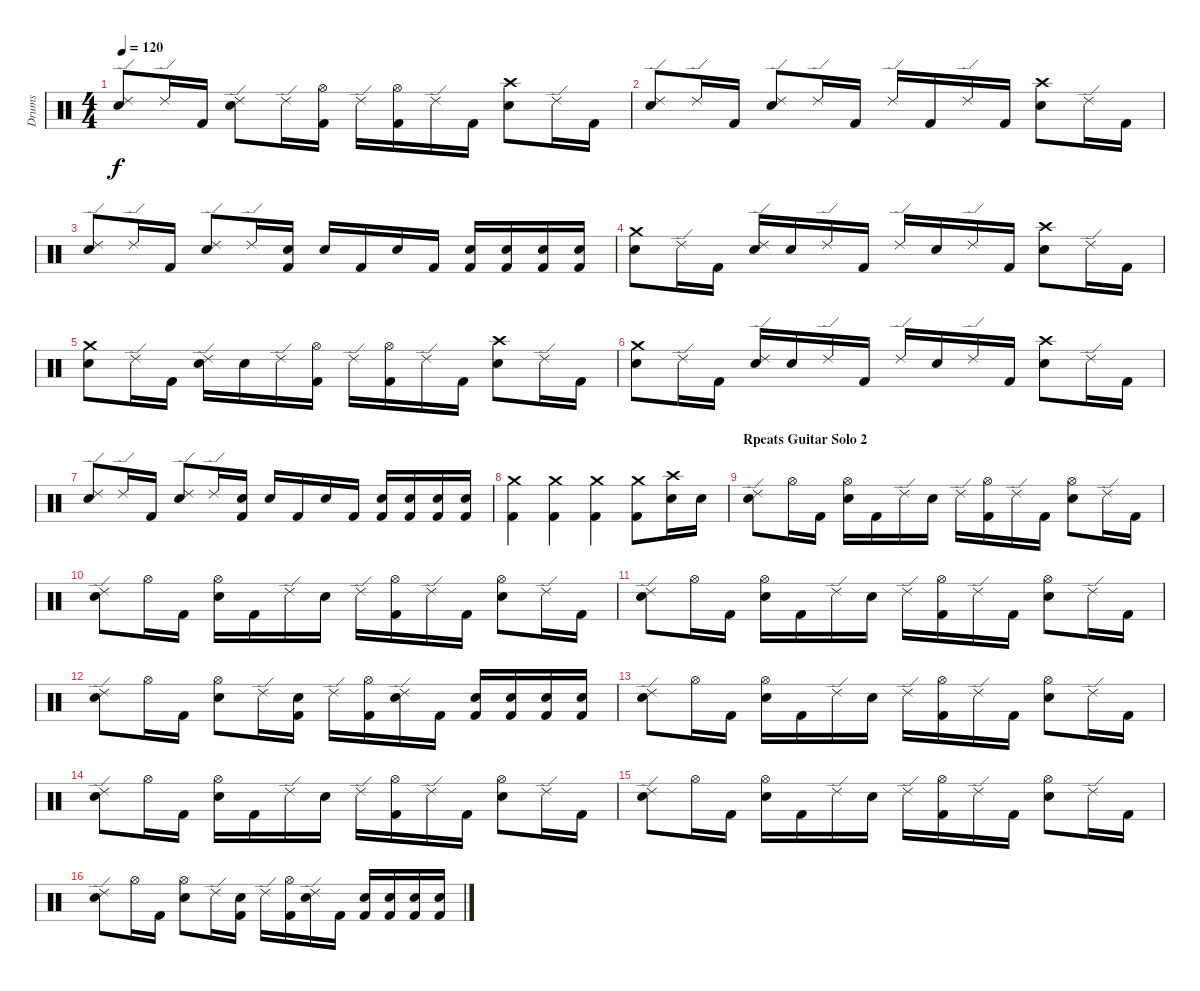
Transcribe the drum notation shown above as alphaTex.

\track ("Drums" "Drums") {instrument percussion}
\staff {score}
\articulation defaults
\ts (4 4)
\tempo 120
\clef neutral
\ks c
("Ride (edge) 2" "Electric Snare (hit)").8{dy f} "Ride (edge) 2".16 "Kick (hit) 2".16 ("Ride (edge) 2" "Electric Snare (hit)").8 "Ride (edge) 2".16 ("Hi-Hat (open)" "Kick (hit) 2").16 "Ride (edge) 2".16 ("Hi-Hat (open)" "Kick (hit) 2").16 "Ride (edge) 2".16 "Kick (hit) 2".16 ("Crash high (hit)" "Electric Snare (hit)").8 "Ride (edge) 2".16 "Kick (hit) 2".16 |
("Ride (edge) 2" "Electric Snare (hit)").8 "Ride (edge) 2".16 "Kick (hit) 2".16 ("Ride (edge) 2" "Electric Snare (hit)").8 "Ride (edge) 2".16 "Kick (hit) 2".16 "Ride (edge) 2".16 "Kick (hit) 2".16 "Ride (edge) 2".16 "Kick (hit) 2".16 ("Crash high (hit)" "Electric Snare (hit)").8 "Ride (edge) 2".16 "Kick (hit) 2".16 |
("Ride (edge) 2" "Electric Snare (hit)").8 "Ride (edge) 2".16 "Kick (hit) 2".16 ("Ride (edge) 2" "Electric Snare (hit)").8 "Ride (edge) 2".16 ("Electric Snare (hit)" "Kick (hit) 2").16 "Electric Snare (hit)".16 "Kick (hit) 2".16 "Electric Snare (hit)".16 "Kick (hit) 2".16 ("Electric Snare (hit)" "Kick (hit) 2").16 ("Electric Snare (hit)" "Kick (hit) 2").16 ("Electric Snare (hit)" "Kick (hit) 2").16 ("Electric Snare (hit)" "Kick (hit) 2").16 |
("Crash medium (hit)" "Electric Snare (hit)").8 "Ride (edge) 2".16 "Kick (hit) 2".16 ("Ride (edge) 2" "Electric Snare (hit)").16 "Electric Snare (hit)".16 "Ride (edge) 2".16 "Kick (hit) 2".16 "Ride (edge) 2".16 "Electric Snare (hit)".16 "Ride (edge) 2".16 "Kick (hit) 2".16 ("Crash high (hit)" "Electric Snare (hit)").8 "Ride (edge) 2".16 "Kick (hit) 2".16 |
("Crash medium (hit)" "Electric Snare (hit)").8 "Ride (edge) 2".16 "Kick (hit) 2".16 ("Ride (edge) 2" "Electric Snare (hit)").16 "Electric Snare (hit)".16 "Ride (edge) 2".16 ("Hi-Hat (open)" "Kick (hit) 2").16 "Ride (edge) 2".16 ("Hi-Hat (open)" "Kick (hit) 2").16 "Ride (edge) 2".16 "Kick (hit) 2".16 ("Crash high (hit)" "Electric Snare (hit)").8 "Ride (edge) 2".16 "Kick (hit) 2".16 |
("Crash medium (hit)" "Electric Snare (hit)").8 "Ride (edge) 2".16 "Kick (hit) 2".16 ("Ride (edge) 2" "Electric Snare (hit)").16 "Electric Snare (hit)".16 "Ride (edge) 2".16 "Kick (hit) 2".16 "Ride (edge) 2".16 "Electric Snare (hit)".16 "Ride (edge) 2".16 "Kick (hit) 2".16 ("Crash high (hit)" "Electric Snare (hit)").8 "Ride (edge) 2".16 "Kick (hit) 2".16 |
("Ride (edge) 2" "Electric Snare (hit)").8 "Ride (edge) 2".16 "Kick (hit) 2".16 ("Ride (edge) 2" "Electric Snare (hit)").8 "Ride (edge) 2".16 ("Electric Snare (hit)" "Kick (hit) 2").16 "Electric Snare (hit)".16 "Kick (hit) 2".16 "Electric Snare (hit)".16 "Kick (hit) 2".16 ("Electric Snare (hit)" "Kick (hit) 2").16 ("Electric Snare (hit)" "Kick (hit) 2").16 ("Electric Snare (hit)" "Kick (hit) 2").16 ("Electric Snare (hit)" "Kick (hit) 2").16 |
("Crash medium (hit)" "Kick (hit) 2").4 ("Crash medium (hit)" "Kick (hit) 2").4 ("Crash medium (hit)" "Kick (hit) 2").4 ("Crash medium (hit)" "Kick (hit) 2").8 ("Crash high (hit)" "Electric Snare (hit)").16 "Electric Snare (hit)".16 |
\section ("" "Rpeats Guitar Solo 2")
("Ride (edge) 2" "Electric Snare (hit)").8 "Hi-Hat (open)".16 "Kick (hit) 2".16 ("Hi-Hat (open)" "Electric Snare (hit)").16 "Kick (hit) 2".16 "Ride (edge) 2".16 "Electric Snare (hit)".16 "Ride (edge) 2".16 ("Hi-Hat (open)" "Kick (hit) 2").16 "Ride (edge) 2".16 "Kick (hit) 2".16 ("Hi-Hat (open)" "Electric Snare (hit)").8 "Ride (edge) 2".16 "Kick (hit) 2".16 |
("Ride (edge) 2" "Electric Snare (hit)").8 "Hi-Hat (open)".16 "Kick (hit) 2".16 ("Hi-Hat (open)" "Electric Snare (hit)").16 "Kick (hit) 2".16 "Ride (edge) 2".16 "Electric Snare (hit)".16 "Ride (edge) 2".16 ("Hi-Hat (open)" "Kick (hit) 2").16 "Ride (edge) 2".16 "Kick (hit) 2".16 ("Hi-Hat (open)" "Electric Snare (hit)").8 "Ride (edge) 2".16 "Kick (hit) 2".16 |
("Ride (edge) 2" "Electric Snare (hit)").8 "Hi-Hat (open)".16 "Kick (hit) 2".16 ("Hi-Hat (open)" "Electric Snare (hit)").16 "Kick (hit) 2".16 "Ride (edge) 2".16 "Electric Snare (hit)".16 "Ride (edge) 2".16 ("Hi-Hat (open)" "Kick (hit) 2").16 "Ride (edge) 2".16 "Kick (hit) 2".16 ("Hi-Hat (open)" "Electric Snare (hit)").8 "Ride (edge) 2".16 "Kick (hit) 2".16 |
("Ride (edge) 2" "Electric Snare (hit)").8 "Hi-Hat (open)".16 "Kick (hit) 2".16 ("Hi-Hat (open)" "Electric Snare (hit)").8 "Ride (edge) 2".16 ("Electric Snare (hit)" "Kick (hit) 2").16 "Ride (edge) 2".16 ("Hi-Hat (open)" "Kick (hit) 2").16 ("Ride (edge) 2" "Electric Snare (hit)").16 "Kick (hit) 2".16 ("Electric Snare (hit)" "Kick (hit) 2").16 ("Electric Snare (hit)" "Kick (hit) 2").16 ("Electric Snare (hit)" "Kick (hit) 2").16 ("Electric Snare (hit)" "Kick (hit) 2").16 |
("Ride (edge) 2" "Electric Snare (hit)").8 "Hi-Hat (open)".16 "Kick (hit) 2".16 ("Hi-Hat (open)" "Electric Snare (hit)").16 "Kick (hit) 2".16 "Ride (edge) 2".16 "Electric Snare (hit)".16 "Ride (edge) 2".16 ("Hi-Hat (open)" "Kick (hit) 2").16 "Ride (edge) 2".16 "Kick (hit) 2".16 ("Hi-Hat (open)" "Electric Snare (hit)").8 "Ride (edge) 2".16 "Kick (hit) 2".16 |
("Ride (edge) 2" "Electric Snare (hit)").8 "Hi-Hat (open)".16 "Kick (hit) 2".16 ("Hi-Hat (open)" "Electric Snare (hit)").16 "Kick (hit) 2".16 "Ride (edge) 2".16 "Electric Snare (hit)".16 "Ride (edge) 2".16 ("Hi-Hat (open)" "Kick (hit) 2").16 "Ride (edge) 2".16 "Kick (hit) 2".16 ("Hi-Hat (open)" "Electric Snare (hit)").8 "Ride (edge) 2".16 "Kick (hit) 2".16 |
("Ride (edge) 2" "Electric Snare (hit)").8 "Hi-Hat (open)".16 "Kick (hit) 2".16 ("Hi-Hat (open)" "Electric Snare (hit)").16 "Kick (hit) 2".16 "Ride (edge) 2".16 "Electric Snare (hit)".16 "Ride (edge) 2".16 ("Hi-Hat (open)" "Kick (hit) 2").16 "Ride (edge) 2".16 "Kick (hit) 2".16 ("Hi-Hat (open)" "Electric Snare (hit)").8 "Ride (edge) 2".16 "Kick (hit) 2".16 |
("Ride (edge) 2" "Electric Snare (hit)").8 "Hi-Hat (open)".16 "Kick (hit) 2".16 ("Hi-Hat (open)" "Electric Snare (hit)").8 "Ride (edge) 2".16 ("Electric Snare (hit)" "Kick (hit) 2").16 "Ride (edge) 2".16 ("Hi-Hat (open)" "Kick (hit) 2").16 ("Ride (edge) 2" "Electric Snare (hit)").16 "Kick (hit) 2".16 ("Electric Snare (hit)" "Kick (hit) 2").16 ("Electric Snare (hit)" "Kick (hit) 2").16 ("Electric Snare (hit)" "Kick (hit) 2").16 ("Electric Snare (hit)" "Kick (hit) 2").16
